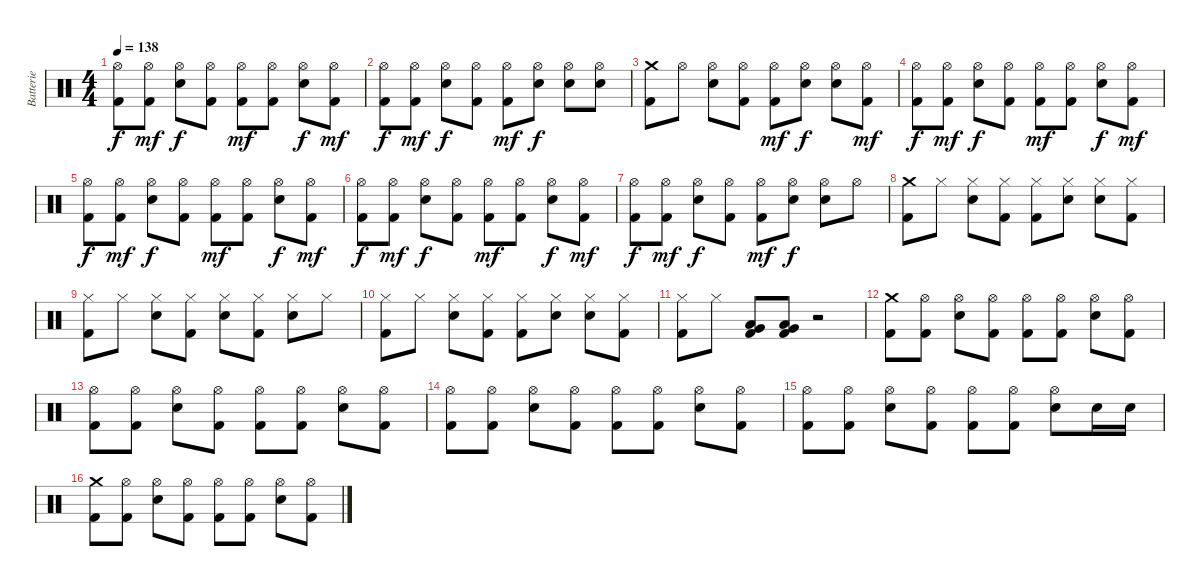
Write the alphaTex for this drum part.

\track ("Batterie" "Batterie") {instrument percussion}
\staff {score}
\articulation defaults
\ts (4 4)
\tempo 138
\clef neutral
\ks c
("Hi-Hat (open)" "Kick (hit) 2").8{dy f} ("Hi-Hat (open)" "Kick (hit) 2").8{dy mf} ("Hi-Hat (open)" "Electric Snare (hit)").8{dy f} ("Hi-Hat (open)" "Kick (hit) 2").8 ("Hi-Hat (open)" "Kick (hit) 2").8{dy mf} ("Hi-Hat (open)" "Kick (hit) 2").8 ("Hi-Hat (open)" "Electric Snare (hit)").8{dy f} ("Hi-Hat (open)" "Kick (hit) 2").8{dy mf} |
("Hi-Hat (open)" "Kick (hit) 2").8{dy f} ("Hi-Hat (open)" "Kick (hit) 2").8{dy mf} ("Hi-Hat (open)" "Electric Snare (hit)").8{dy f} ("Hi-Hat (open)" "Kick (hit) 2").8 ("Hi-Hat (open)" "Kick (hit) 2").8{dy mf} ("Hi-Hat (open)" "Electric Snare (hit)").8{dy f} ("Hi-Hat (open)" "Electric Snare (hit)").8 ("Hi-Hat (open)" "Electric Snare (hit)").8 |
("Crash medium (hit)" "Kick (hit) 2").8 "Hi-Hat (open)".8 ("Hi-Hat (open)" "Electric Snare (hit)").8 ("Hi-Hat (open)" "Kick (hit) 2").8 ("Hi-Hat (open)" "Kick (hit) 2").8{dy mf} ("Hi-Hat (open)" "Electric Snare (hit)").8{dy f} ("Hi-Hat (open)" "Electric Snare (hit)").8 ("Hi-Hat (open)" "Kick (hit) 2").8{dy mf} |
("Hi-Hat (open)" "Kick (hit) 2").8{dy f} ("Hi-Hat (open)" "Kick (hit) 2").8{dy mf} ("Hi-Hat (open)" "Electric Snare (hit)").8{dy f} ("Hi-Hat (open)" "Kick (hit) 2").8 ("Hi-Hat (open)" "Kick (hit) 2").8{dy mf} ("Hi-Hat (open)" "Kick (hit) 2").8 ("Hi-Hat (open)" "Electric Snare (hit)").8{dy f} ("Hi-Hat (open)" "Kick (hit) 2").8{dy mf} |
("Hi-Hat (open)" "Kick (hit) 2").8{dy f} ("Hi-Hat (open)" "Kick (hit) 2").8{dy mf} ("Hi-Hat (open)" "Electric Snare (hit)").8{dy f} ("Hi-Hat (open)" "Kick (hit) 2").8 ("Hi-Hat (open)" "Kick (hit) 2").8{dy mf} ("Hi-Hat (open)" "Kick (hit) 2").8 ("Hi-Hat (open)" "Electric Snare (hit)").8{dy f} ("Hi-Hat (open)" "Kick (hit) 2").8{dy mf} |
("Hi-Hat (open)" "Kick (hit) 2").8{dy f} ("Hi-Hat (open)" "Kick (hit) 2").8{dy mf} ("Hi-Hat (open)" "Electric Snare (hit)").8{dy f} ("Hi-Hat (open)" "Kick (hit) 2").8 ("Hi-Hat (open)" "Kick (hit) 2").8{dy mf} ("Hi-Hat (open)" "Kick (hit) 2").8 ("Hi-Hat (open)" "Electric Snare (hit)").8{dy f} ("Hi-Hat (open)" "Kick (hit) 2").8{dy mf} |
("Hi-Hat (open)" "Kick (hit) 2").8{dy f} ("Hi-Hat (open)" "Kick (hit) 2").8{dy mf} ("Hi-Hat (open)" "Electric Snare (hit)").8{dy f} ("Hi-Hat (open)" "Kick (hit) 2").8 ("Hi-Hat (open)" "Kick (hit) 2").8{dy mf} ("Hi-Hat (open)" "Electric Snare (hit)").8{dy f} ("Hi-Hat (open)" "Electric Snare (hit)").8 "Hi-Hat (open)".8 |
("Crash medium (hit)" "Kick (hit) 2").8 "Hi-Hat (closed)".8 ("Hi-Hat (closed)" "Electric Snare (hit)").8 ("Hi-Hat (closed)" "Kick (hit) 2").8 ("Hi-Hat (closed)" "Kick (hit) 2").8 ("Hi-Hat (closed)" "Electric Snare (hit)").8 ("Hi-Hat (closed)" "Electric Snare (hit)").8 ("Hi-Hat (closed)" "Kick (hit) 2").8 |
("Hi-Hat (closed)" "Kick (hit) 2").8 "Hi-Hat (closed)".8 ("Hi-Hat (closed)" "Electric Snare (hit)").8 ("Hi-Hat (closed)" "Kick (hit) 2").8 ("Hi-Hat (closed)" "Electric Snare (hit)").8 ("Hi-Hat (closed)" "Kick (hit) 2").8 ("Hi-Hat (closed)" "Electric Snare (hit)").8 "Hi-Hat (closed)".8 |
("Hi-Hat (closed)" "Kick (hit) 2").8 "Hi-Hat (closed)".8 ("Hi-Hat (closed)" "Electric Snare (hit)").8 ("Hi-Hat (closed)" "Kick (hit) 2").8 ("Hi-Hat (closed)" "Kick (hit) 2").8 ("Hi-Hat (closed)" "Electric Snare (hit)").8 ("Hi-Hat (closed)" "Electric Snare (hit)").8 ("Hi-Hat (closed)" "Kick (hit) 2").8 |
("Hi-Hat (closed)" "Kick (hit) 2").8 "Hi-Hat (closed)".8 ("Low Tom (hit)" "Very Low Tom (hit)" "Kick (hit) 2").8 ("Very Low Tom (hit)" "Low Floor Tom (hit)" "Kick (hit) 2").8 r.2 |
("Crash medium (hit)" "Kick (hit) 2").8 ("Hi-Hat (open)" "Kick (hit) 2").8 ("Hi-Hat (open)" "Electric Snare (hit)").8 ("Hi-Hat (open)" "Kick (hit) 2").8 ("Hi-Hat (open)" "Kick (hit) 2").8 ("Hi-Hat (open)" "Kick (hit) 2").8 ("Hi-Hat (open)" "Electric Snare (hit)").8 ("Hi-Hat (open)" "Kick (hit) 2").8 |
("Hi-Hat (open)" "Kick (hit) 2").8 ("Hi-Hat (open)" "Kick (hit) 2").8 ("Hi-Hat (open)" "Electric Snare (hit)").8 ("Hi-Hat (open)" "Kick (hit) 2").8 ("Hi-Hat (open)" "Kick (hit) 2").8 ("Hi-Hat (open)" "Kick (hit) 2").8 ("Hi-Hat (open)" "Electric Snare (hit)").8 ("Hi-Hat (open)" "Kick (hit) 2").8 |
("Hi-Hat (open)" "Kick (hit) 2").8 ("Hi-Hat (open)" "Kick (hit) 2").8 ("Hi-Hat (open)" "Electric Snare (hit)").8 ("Hi-Hat (open)" "Kick (hit) 2").8 ("Hi-Hat (open)" "Kick (hit) 2").8 ("Hi-Hat (open)" "Kick (hit) 2").8 ("Hi-Hat (open)" "Electric Snare (hit)").8 ("Hi-Hat (open)" "Kick (hit) 2").8 |
("Hi-Hat (open)" "Kick (hit) 2").8 ("Hi-Hat (open)" "Kick (hit) 2").8 ("Hi-Hat (open)" "Electric Snare (hit)").8 ("Hi-Hat (open)" "Kick (hit) 2").8 ("Hi-Hat (open)" "Kick (hit) 2").8 ("Hi-Hat (open)" "Kick (hit) 2").8 ("Hi-Hat (open)" "Electric Snare (hit)").8 "Electric Snare (hit)".16 "Electric Snare (hit)".16 |
("Crash medium (hit)" "Kick (hit) 2").8 ("Hi-Hat (open)" "Kick (hit) 2").8 ("Hi-Hat (open)" "Electric Snare (hit)").8 ("Hi-Hat (open)" "Kick (hit) 2").8 ("Hi-Hat (open)" "Kick (hit) 2").8 ("Hi-Hat (open)" "Kick (hit) 2").8 ("Hi-Hat (open)" "Electric Snare (hit)").8 ("Hi-Hat (open)" "Kick (hit) 2").8
